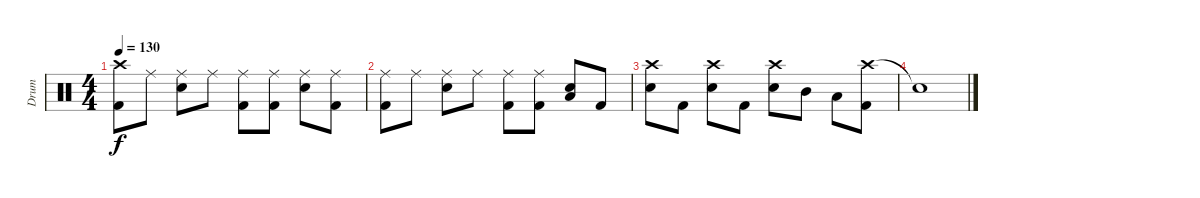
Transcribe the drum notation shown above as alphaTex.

\track ("Drum" "Drum") {instrument percussion}
\staff {score}
\articulation defaults
\ts (4 4)
\tempo 130
\clef neutral
\ks c
("Crash high (hit)" "Kick (hit) 2").8{dy f} "Ride (middle)".8 ("Ride (middle)" "Electric Snare (hit)").8 "Ride (middle)".8 ("Ride (middle)" "Kick (hit) 2").8 ("Ride (middle)" "Kick (hit) 2").8 ("Ride (middle)" "Electric Snare (hit)").8 ("Ride (middle)" "Kick (hit) 2").8 |
("Ride (middle)" "Kick (hit) 2").8 "Ride (middle)".8 ("Ride (middle)" "Electric Snare (hit)").8 "Ride (middle)".8 ("Ride (middle)" "Kick (hit) 2").8 ("Ride (middle)" "Kick (hit) 2").8 ("Electric Snare (hit)" "Low Floor Tom (hit)").8 "Kick (hit) 2".8 |
("Crash high (hit)" "Electric Snare (hit)").8 "Kick (hit) 2".8 ("Crash high (hit)" "Electric Snare (hit)").8 "Kick (hit) 2".8 ("Crash high (hit)" "Electric Snare (hit)").8 "Mid Tom (hit)".8 "Low Tom (hit)".8 ("Crash high (hit)" "Kick (hit) 2").8 |
"Snare (hit)"{t}.1
